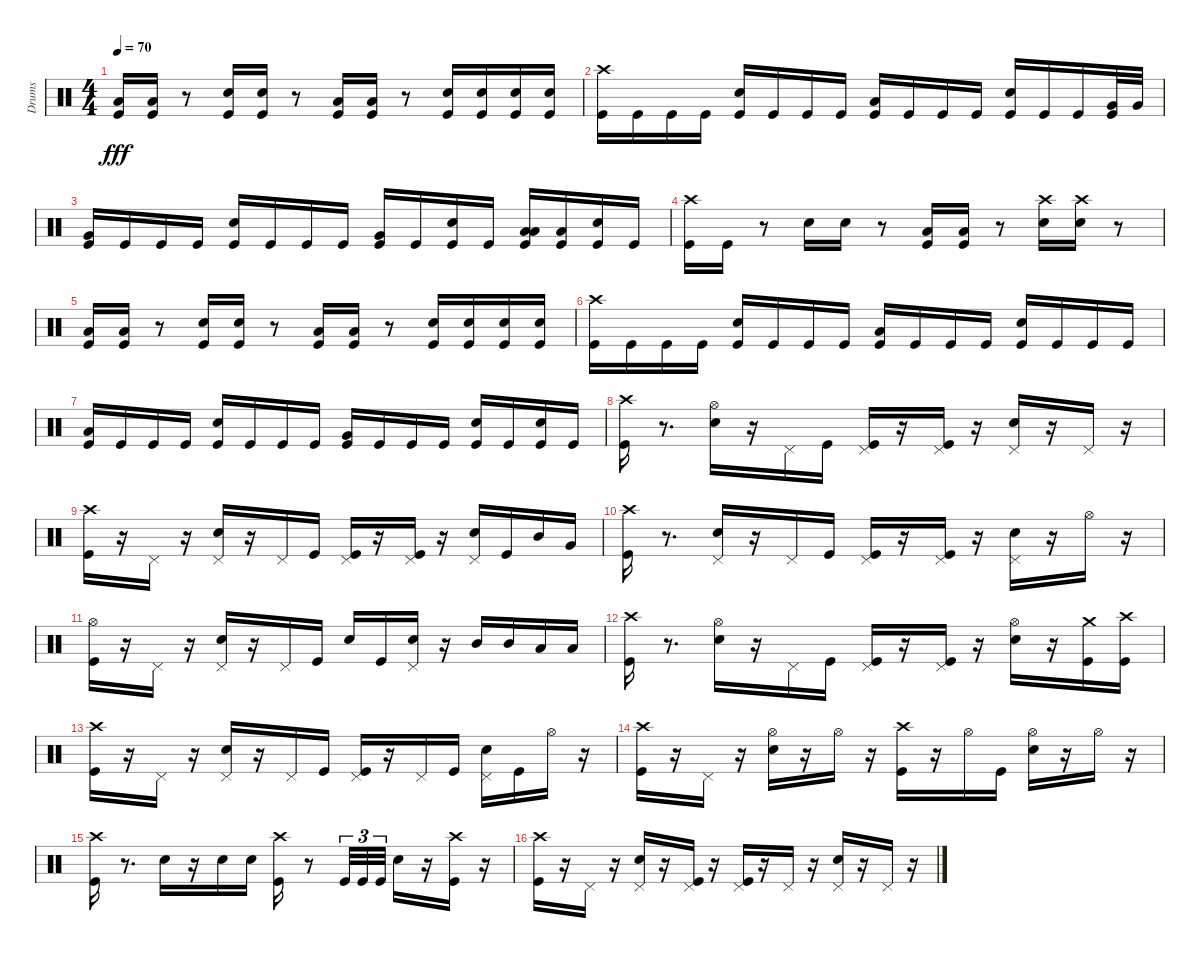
\track ("Drums" "Drums") {instrument percussion}
\staff {score}
\articulation defaults
\ts (4 4)
\tempo 70
\clef neutral
\ks c
("Low Floor Tom (hit)" "Kick (hit)").16{dy fff} ("Low Floor Tom (hit)" "Kick (hit)").16 r.8 ("Snare (hit) 2" "Kick (hit)").16 ("Snare (hit) 2" "Kick (hit)").16 r.8 ("Kick (hit)" "Low Floor Tom (hit)").16 ("Kick (hit)" "Low Floor Tom (hit)").16 r.8 ("Kick (hit)" "Snare (hit) 2").16 ("Kick (hit)" "Snare (hit) 2").16 ("Snare (hit) 2" "Kick (hit)").16 ("Snare (hit) 2" "Kick (hit)").16 |
("Crash high (hit)" "Kick (hit)").16 "Kick (hit)".16 "Kick (hit)".16 "Kick (hit)".16 ("Snare (hit) 2" "Kick (hit)").16 "Kick (hit)".16 "Kick (hit)".16 "Kick (hit)".16 ("Low Tom (hit)" "Kick (hit)").16 "Kick (hit)".16 "Kick (hit)".16 "Kick (hit)".16 ("Snare (hit) 2" "Kick (hit)").16 "Kick (hit)".16 "Kick (hit)".16 ("Very Low Tom (hit)" "Kick (hit)").32 "Very Low Tom (hit)".32 |
("Very Low Tom (hit)" "Kick (hit)").16 "Kick (hit)".16 "Kick (hit)".16 "Kick (hit)".16 ("Snare (hit) 2" "Kick (hit)").16 "Kick (hit)".16 "Kick (hit)".16 "Kick (hit)".16 ("Very Low Tom (hit)" "Kick (hit)").16 "Kick (hit)".16 ("Snare (hit) 2" "Kick (hit)").16 "Kick (hit)".16 ("Low Tom (hit)" "Kick (hit)" "Low Tom (hit)").16 ("Low Floor Tom (hit)" "Kick (hit)").16 ("Snare (hit) 2" "Kick (hit)").16 "Kick (hit)".16 |
("Kick (hit)" "Crash high (hit)").16 "Kick (hit)".16 r.8 "Snare (hit) 2".16 "Snare (hit) 2".16 r.8 ("Kick (hit)" "Low Floor Tom (hit)").16 ("Kick (hit)" "Low Floor Tom (hit)").16 r.8 ("Snare (hit) 2" "Crash high (hit)").16 ("Snare (hit) 2" "Crash high (hit)").16 r.8 |
("Kick (hit)" "Low Floor Tom (hit)").16 ("Kick (hit)" "Low Floor Tom (hit)").16 r.8 ("Kick (hit)" "Snare (hit) 2").16 ("Kick (hit)" "Snare (hit) 2").16 r.8 ("Low Floor Tom (hit)" "Kick (hit)").16 ("Low Floor Tom (hit)" "Kick (hit)").16 r.8 ("Snare (hit) 2" "Kick (hit)").16 ("Snare (hit) 2" "Kick (hit)").16 ("Kick (hit)" "Snare (hit) 2").16 ("Kick (hit)" "Snare (hit) 2").16 |
("Kick (hit)" "Crash high (hit)").16 "Kick (hit)".16 "Kick (hit)".16 "Kick (hit)".16 ("Kick (hit)" "Snare (hit) 2").16 "Kick (hit)".16 "Kick (hit)".16 "Kick (hit)".16 ("Kick (hit)" "Low Tom (hit)").16 "Kick (hit)".16 "Kick (hit)".16 "Kick (hit)".16 ("Kick (hit)" "Snare (hit) 2").16 "Kick (hit)".16 "Kick (hit)".16 "Kick (hit)".16 |
("Low Tom (hit)" "Kick (hit)").16 "Kick (hit)".16 "Kick (hit)".16 "Kick (hit)".16 ("Snare (hit) 2" "Kick (hit)").16 "Kick (hit)".16 "Kick (hit)".16 "Kick (hit)".16 ("Very Low Tom (hit)" "Kick (hit)").16 "Kick (hit)".16 "Kick (hit)".16 "Kick (hit)".16 ("Snare (hit) 2" "Kick (hit)").16 "Kick (hit)".16 ("Snare (hit) 2" "Kick (hit)").16 "Kick (hit)".16 |
("Crash high (hit)" "Kick (hit)").16 r.8{d} ("Hi-Hat (open)" "Snare (hit) 2").16 r.16 "Pedal Hi-Hat (hit)".16 "Kick (hit)".16 ("Pedal Hi-Hat (hit)" "Kick (hit)").16 r.16 ("Pedal Hi-Hat (hit)" "Kick (hit)").16 r.16 ("Pedal Hi-Hat (hit)" "Snare (hit) 2").16 r.16 "Pedal Hi-Hat (hit)".16 r.16 |
("Crash high (hit)" "Kick (hit)").16 r.16 "Pedal Hi-Hat (hit)".16 r.16 ("Pedal Hi-Hat (hit)" "Snare (hit) 2").16 r.16 "Pedal Hi-Hat (hit)".16 "Kick (hit)".16 ("Kick (hit)" "Pedal Hi-Hat (hit)").16 r.16 ("Kick (hit)" "Pedal Hi-Hat (hit)").16 r.16 ("Snare (hit) 2" "Pedal Hi-Hat (hit)").16 "Kick (hit)".16 "Mid Tom (hit)".16 "Very Low Tom (hit)".16 |
("Kick (hit)" "Crash high (hit)").16 r.8{d} ("Pedal Hi-Hat (hit)" "Snare (hit) 2").16 r.16 "Pedal Hi-Hat (hit)".16 "Kick (hit)".16 ("Kick (hit)" "Pedal Hi-Hat (hit)").16 r.16 ("Kick (hit)" "Pedal Hi-Hat (hit)").16 r.16 ("Snare (hit) 2" "Pedal Hi-Hat (hit)").16 r.16 "Hi-Hat (open)".16 r.16 |
("Hi-Hat (open)" "Kick (hit)").16 r.16 "Pedal Hi-Hat (hit)".16 r.16 ("Snare (hit) 2" "Pedal Hi-Hat (hit)").16 r.16 "Pedal Hi-Hat (hit)".16 "Kick (hit)".16 "Snare (hit) 2".16 "Kick (hit)".16 ("Snare (hit) 2" "Pedal Hi-Hat (hit)").16 r.16 "Mid Tom (hit)".16 "Mid Tom (hit)".16 "Low Tom (hit)".16 "Low Tom (hit)".16 |
("Kick (hit)" "Crash high (hit)").16 r.8{d} ("Snare (hit) 2" "Hi-Hat (open)").16 r.16 "Pedal Hi-Hat (hit)".16 "Kick (hit)".16 ("Kick (hit)" "Pedal Hi-Hat (hit)").16 r.16 ("Kick (hit)" "Pedal Hi-Hat (hit)").16 r.16 ("Hi-Hat (open)" "Snare (hit) 2").16 r.16 ("Crash medium (hit)" "Kick (hit)").16 ("Crash high (hit)" "Kick (hit)").16 |
("Kick (hit)" "Crash high (hit)").16 r.16 "Pedal Hi-Hat (hit)".16 r.16 ("Pedal Hi-Hat (hit)" "Snare (hit) 2").16 r.16 "Pedal Hi-Hat (hit)".16 "Kick (hit)".16 ("Kick (hit)" "Pedal Hi-Hat (hit)").16 r.16 "Pedal Hi-Hat (hit)".16 "Kick (hit)".16 ("Snare (hit) 2" "Pedal Hi-Hat (hit)").16 "Kick (hit)".16 "Hi-Hat (open)".16 r.16 |
("Crash high (hit)" "Kick (hit)").16 r.16 "Pedal Hi-Hat (hit)".16 r.16 ("Hi-Hat (open)" "Snare (hit) 2").16 r.16 "Hi-Hat (open)".16 r.16 ("Crash high (hit)" "Kick (hit)").16 r.16 "Hi-Hat (open)".16 "Kick (hit)".16 ("Hi-Hat (open)" "Snare (hit) 2").16 r.16 "Hi-Hat (open)".16 r.16 |
("Crash high (hit)" "Kick (hit)").16 r.8{d} "Snare (hit) 2".16 r.16 "Snare (hit) 2".16 "Snare (hit) 2".16 ("Crash high (hit)" "Kick (hit)").16 r.8 "Kick (hit)".32{tu (3 2)} "Kick (hit)".32{tu (3 2)} "Kick (hit)".32{tu (3 2)} "Snare (hit) 2".16 r.16 ("Crash high (hit)" "Kick (hit)").16 r.16 |
("Crash high (hit)" "Kick (hit)").16 r.16 "Pedal Hi-Hat (hit)".16 r.16 ("Pedal Hi-Hat (hit)" "Snare (hit) 2").16 r.16 ("Pedal Hi-Hat (hit)" "Kick (hit)").16 r.16 ("Pedal Hi-Hat (hit)" "Kick (hit)").16 r.16 "Pedal Hi-Hat (hit)".16 r.16 ("Pedal Hi-Hat (hit)" "Snare (hit) 2").16 r.16 "Pedal Hi-Hat (hit)".16 r.16
